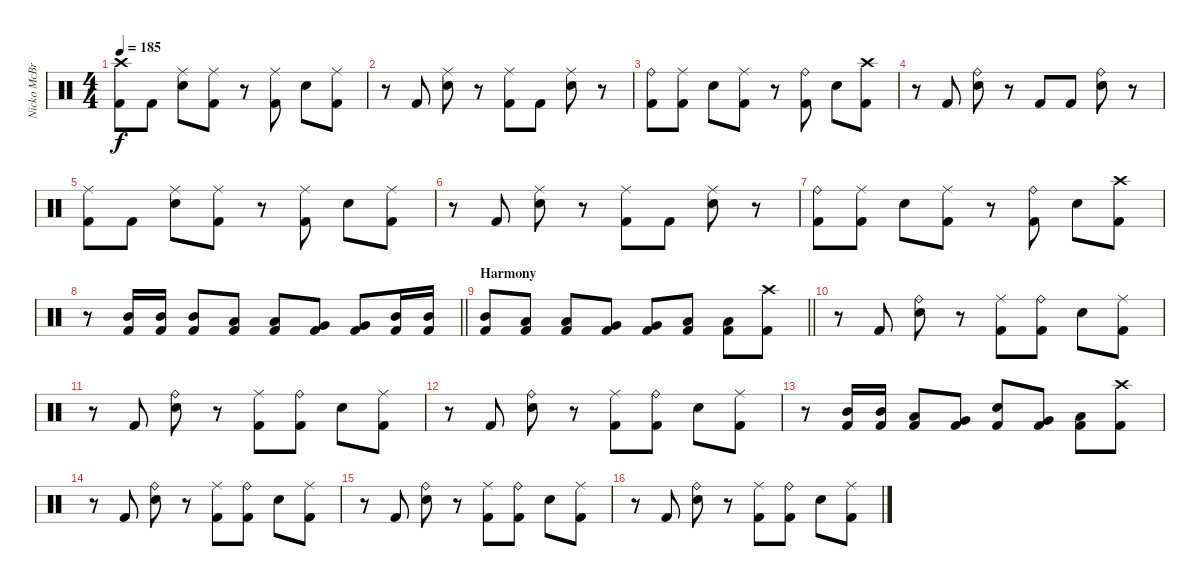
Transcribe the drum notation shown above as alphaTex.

\track ("Nicko McBrain" "Nicko McBr") {instrument percussion}
\staff {score}
\articulation defaults
\ts (4 4)
\tempo 185
\clef neutral
\ks c
("Crash high (hit)" "Kick (hit) 2").8{dy f} "Kick (hit) 2".8 ("Ride (middle)" "Snare (hit) 2").8 ("Ride (middle)" "Kick (hit) 2").8 r.8 ("Ride (middle)" "Kick (hit) 2").8 "Snare (hit) 2".8 ("Ride (middle)" "Kick (hit) 2").8 |
r.8 "Kick (hit) 2".8 ("Ride (middle)" "Snare (hit) 2").8 r.8 ("Ride (middle)" "Kick (hit) 2").8 "Kick (hit) 2".8 ("Ride (middle)" "Snare (hit) 2").8 r.8 |
("Ride (bell)" "Kick (hit) 2").8 ("Ride (middle)" "Kick (hit) 2").8 "Snare (hit) 2".8 ("Ride (middle)" "Kick (hit) 2").8 r.8 ("Ride (bell)" "Kick (hit) 2").8 "Snare (hit) 2".8 ("Crash high (hit)" "Kick (hit) 2").8 |
r.8 "Kick (hit) 2".8 ("Ride (bell)" "Snare (hit) 2").8 r.8 "Kick (hit) 2".8 "Kick (hit) 2".8 ("Ride (bell)" "Snare (hit) 2").8 r.8 |
("Ride (middle)" "Kick (hit) 2").8 "Kick (hit) 2".8 ("Ride (middle)" "Snare (hit) 2").8 ("Ride (middle)" "Kick (hit) 2").8 r.8 ("Ride (middle)" "Kick (hit) 2").8 "Snare (hit) 2".8 ("Ride (middle)" "Kick (hit) 2").8 |
r.8 "Kick (hit) 2".8 ("Ride (middle)" "Snare (hit) 2").8 r.8 ("Ride (middle)" "Kick (hit) 2").8 "Kick (hit) 2".8 ("Ride (middle)" "Snare (hit) 2").8 r.8 |
("Ride (bell)" "Kick (hit) 2").8 ("Ride (middle)" "Kick (hit) 2").8 "Snare (hit) 2".8 ("Ride (middle)" "Kick (hit) 2").8 r.8 ("Ride (bell)" "Kick (hit) 2").8 "Snare (hit) 2".8 ("Crash high (hit)" "Kick (hit) 2").8 |
\barLineRight lightlight
r.8 ("Mid Tom (hit)" "Kick (hit) 2").16 ("Mid Tom (hit)" "Kick (hit) 2").16 ("Mid Tom (hit)" "Kick (hit) 2").8 ("Low Tom (hit)" "Kick (hit) 2").8 ("Low Tom (hit)" "Kick (hit) 2").8 ("Very Low Tom (hit)" "Kick (hit) 2").8 ("Very Low Tom (hit)" "Kick (hit) 2").8 ("Mid Tom (hit)" "Kick (hit) 2").16 ("Mid Tom (hit)" "Kick (hit) 2").16 |
\section ("" "Harmony")
\barLineRight lightlight
("Mid Tom (hit)" "Kick (hit) 2").8 ("Low Tom (hit)" "Kick (hit) 2").8 ("Low Tom (hit)" "Kick (hit) 2").8 ("Very Low Tom (hit)" "Kick (hit) 2").8 ("Very Low Tom (hit)" "Kick (hit) 2").8 ("Low Floor Tom (hit)" "Kick (hit) 2").8 ("Low Floor Tom (hit)" "Kick (hit) 2").8 ("Crash high (hit)" "Kick (hit) 2").8 |
r.8 "Kick (hit) 2".8 ("Ride (bell)" "Snare (hit) 2").8 r.8 ("Ride (middle)" "Kick (hit) 2").8 ("Ride (bell)" "Kick (hit) 2").8 "Snare (hit) 2".8 ("Ride (middle)" "Kick (hit) 2").8 |
r.8 "Kick (hit) 2".8 ("Ride (bell)" "Snare (hit) 2").8 r.8 ("Ride (middle)" "Kick (hit) 2").8 ("Ride (bell)" "Kick (hit) 2").8 "Snare (hit) 2".8 ("Ride (middle)" "Kick (hit) 2").8 |
r.8 "Kick (hit) 2".8 ("Ride (bell)" "Snare (hit) 2").8 r.8 ("Ride (middle)" "Kick (hit) 2").8 ("Ride (bell)" "Kick (hit) 2").8 "Snare (hit) 2".8 ("Ride (middle)" "Kick (hit) 2").8 |
r.8 ("Mid Tom (hit)" "Kick (hit) 2").16 ("Mid Tom (hit)" "Kick (hit) 2").16 ("Low Tom (hit)" "Kick (hit) 2").8 ("Very Low Tom (hit)" "Kick (hit) 2").8 ("Snare (hit) 2" "Kick (hit) 2").8 ("Very Low Tom (hit)" "Kick (hit) 2").8 ("Low Floor Tom (hit)" "Kick (hit) 2").8 ("Crash high (hit)" "Kick (hit) 2").8 |
r.8 "Kick (hit) 2".8 ("Ride (bell)" "Snare (hit) 2").8 r.8 ("Ride (middle)" "Kick (hit) 2").8 ("Ride (bell)" "Kick (hit) 2").8 "Snare (hit) 2".8 ("Ride (middle)" "Kick (hit) 2").8 |
r.8 "Kick (hit) 2".8 ("Ride (bell)" "Snare (hit) 2").8 r.8 ("Ride (middle)" "Kick (hit) 2").8 ("Ride (bell)" "Kick (hit) 2").8 "Snare (hit) 2".8 ("Ride (middle)" "Kick (hit) 2").8 |
r.8 "Kick (hit) 2".8 ("Ride (bell)" "Snare (hit) 2").8 r.8 ("Ride (middle)" "Kick (hit) 2").8 ("Ride (bell)" "Kick (hit) 2").8 "Snare (hit) 2".8 ("Ride (middle)" "Kick (hit) 2").8
